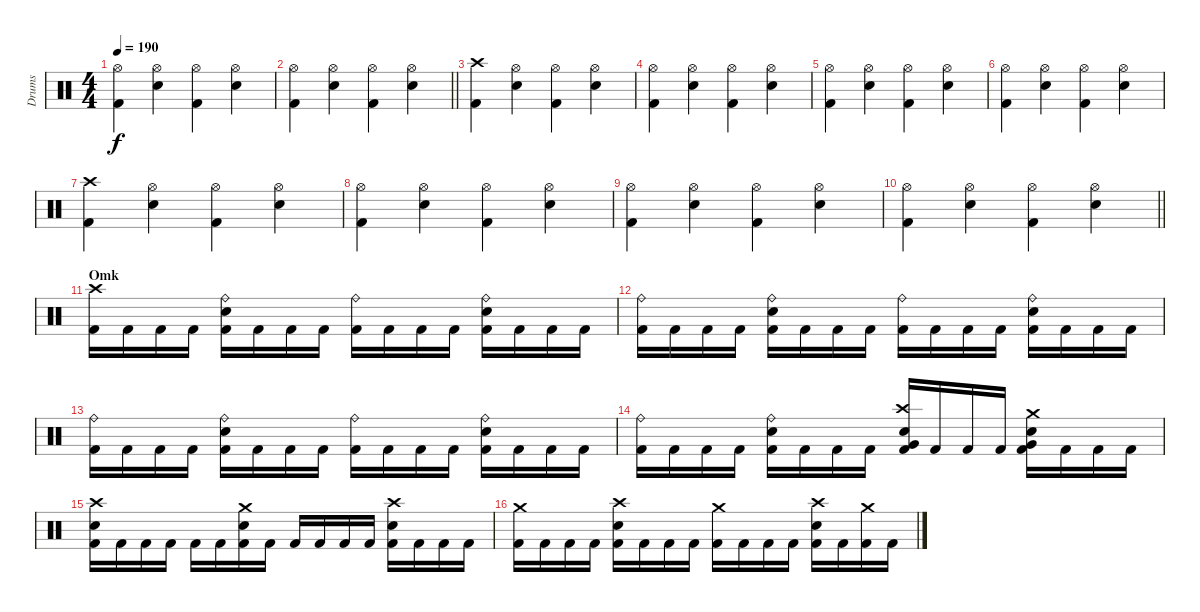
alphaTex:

\track ("Drums" "Drums") {instrument percussion}
\staff {score}
\articulation defaults
\ts (4 4)
\tempo 190
\clef neutral
\ks c
("Hi-Hat (open)" "Kick (hit) 2").4{dy f} ("Hi-Hat (open)" "Snare (hit) 2").4 ("Hi-Hat (open)" "Kick (hit) 2").4 ("Hi-Hat (open)" "Snare (hit) 2").4 |
\barLineRight lightlight
("Hi-Hat (open)" "Kick (hit) 2").4 ("Hi-Hat (open)" "Snare (hit) 2").4 ("Hi-Hat (open)" "Kick (hit) 2").4 ("Hi-Hat (open)" "Snare (hit) 2").4 |
("Crash high (hit)" "Kick (hit) 2").4 ("Hi-Hat (open)" "Snare (hit) 2").4 ("Hi-Hat (open)" "Kick (hit) 2").4 ("Hi-Hat (open)" "Snare (hit) 2").4 |
("Hi-Hat (open)" "Kick (hit) 2").4 ("Hi-Hat (open)" "Snare (hit) 2").4 ("Hi-Hat (open)" "Kick (hit) 2").4 ("Hi-Hat (open)" "Snare (hit) 2").4 |
("Hi-Hat (open)" "Kick (hit) 2").4 ("Hi-Hat (open)" "Snare (hit) 2").4 ("Hi-Hat (open)" "Kick (hit) 2").4 ("Hi-Hat (open)" "Snare (hit) 2").4 |
("Hi-Hat (open)" "Kick (hit) 2").4 ("Hi-Hat (open)" "Snare (hit) 2").4 ("Hi-Hat (open)" "Kick (hit) 2").4 ("Hi-Hat (open)" "Snare (hit) 2").4 |
("Crash high (hit)" "Kick (hit) 2").4 ("Hi-Hat (open)" "Snare (hit) 2").4 ("Hi-Hat (open)" "Kick (hit) 2").4 ("Hi-Hat (open)" "Snare (hit) 2").4 |
("Hi-Hat (open)" "Kick (hit) 2").4 ("Hi-Hat (open)" "Snare (hit) 2").4 ("Hi-Hat (open)" "Kick (hit) 2").4 ("Hi-Hat (open)" "Snare (hit) 2").4 |
("Hi-Hat (open)" "Kick (hit) 2").4 ("Hi-Hat (open)" "Snare (hit) 2").4 ("Hi-Hat (open)" "Kick (hit) 2").4 ("Hi-Hat (open)" "Snare (hit) 2").4 |
\barLineRight lightlight
("Hi-Hat (open)" "Kick (hit) 2").4 ("Hi-Hat (open)" "Snare (hit) 2").4 ("Hi-Hat (open)" "Kick (hit) 2").4 ("Hi-Hat (open)" "Snare (hit) 2").4 |
\section ("" "Omk")
("Crash high (hit)" "Kick (hit) 2").16 "Kick (hit) 2".16 "Kick (hit) 2".16 "Kick (hit) 2".16 ("Ride (bell)" "Snare (hit) 2" "Kick (hit) 2").16 "Kick (hit) 2".16 "Kick (hit) 2".16 "Kick (hit) 2".16 ("Ride (bell)" "Kick (hit) 2").16 "Kick (hit) 2".16 "Kick (hit) 2".16 "Kick (hit) 2".16 ("Ride (bell)" "Snare (hit) 2" "Kick (hit) 2").16 "Kick (hit) 2".16 "Kick (hit) 2".16 "Kick (hit) 2".16 |
("Ride (bell)" "Kick (hit) 2").16 "Kick (hit) 2".16 "Kick (hit) 2".16 "Kick (hit) 2".16 ("Ride (bell)" "Snare (hit) 2" "Kick (hit) 2").16 "Kick (hit) 2".16 "Kick (hit) 2".16 "Kick (hit) 2".16 ("Ride (bell)" "Kick (hit) 2").16 "Kick (hit) 2".16 "Kick (hit) 2".16 "Kick (hit) 2".16 ("Ride (bell)" "Snare (hit) 2" "Kick (hit) 2").16 "Kick (hit) 2".16 "Kick (hit) 2".16 "Kick (hit) 2".16 |
("Ride (bell)" "Kick (hit) 2").16 "Kick (hit) 2".16 "Kick (hit) 2".16 "Kick (hit) 2".16 ("Ride (bell)" "Snare (hit) 2" "Kick (hit) 2").16 "Kick (hit) 2".16 "Kick (hit) 2".16 "Kick (hit) 2".16 ("Ride (bell)" "Kick (hit) 2").16 "Kick (hit) 2".16 "Kick (hit) 2".16 "Kick (hit) 2".16 ("Ride (bell)" "Snare (hit) 2" "Kick (hit) 2").16 "Kick (hit) 2".16 "Kick (hit) 2".16 "Kick (hit) 2".16 |
("Ride (bell)" "Kick (hit) 2").16 "Kick (hit) 2".16 "Kick (hit) 2".16 "Kick (hit) 2".16 ("Ride (bell)" "Snare (hit) 2" "Kick (hit) 2").16 "Kick (hit) 2".16 "Kick (hit) 2".16 "Kick (hit) 2".16 ("Crash high (hit)" "Very Low Tom (hit)" "Snare (hit) 2" "Kick (hit) 2").16 "Kick (hit) 2".16 "Kick (hit) 2".16 "Kick (hit) 2".16 ("Crash medium (hit)" "Very Low Tom (hit)" "Snare (hit) 2" "Kick (hit) 2").16 "Kick (hit) 2".16 "Kick (hit) 2".16 "Kick (hit) 2".16 |
("Crash high (hit)" "Snare (hit) 2" "Kick (hit) 2").16 "Kick (hit) 2".16 "Kick (hit) 2".16 "Kick (hit) 2".16 "Kick (hit) 2".16 "Kick (hit) 2".16 ("Crash medium (hit)" "Snare (hit) 2" "Kick (hit) 2").16 "Kick (hit) 2".16 "Kick (hit) 2".16 "Kick (hit) 2".16 "Kick (hit) 2".16 "Kick (hit) 2".16 ("Crash high (hit)" "Snare (hit) 2" "Kick (hit) 2").16 "Kick (hit) 2".16 "Kick (hit) 2".16 "Kick (hit) 2".16 |
("Crash medium (hit)" "Kick (hit) 2").16 "Kick (hit) 2".16 "Kick (hit) 2".16 "Kick (hit) 2".16 ("Crash high (hit)" "Snare (hit) 2" "Kick (hit) 2").16 "Kick (hit) 2".16 "Kick (hit) 2".16 "Kick (hit) 2".16 ("Crash medium (hit)" "Kick (hit) 2").16 "Kick (hit) 2".16 "Kick (hit) 2".16 "Kick (hit) 2".16 ("Crash high (hit)" "Snare (hit) 2" "Kick (hit) 2").16 "Kick (hit) 2".16 ("Crash medium (hit)" "Kick (hit) 2").16 "Kick (hit) 2".16
